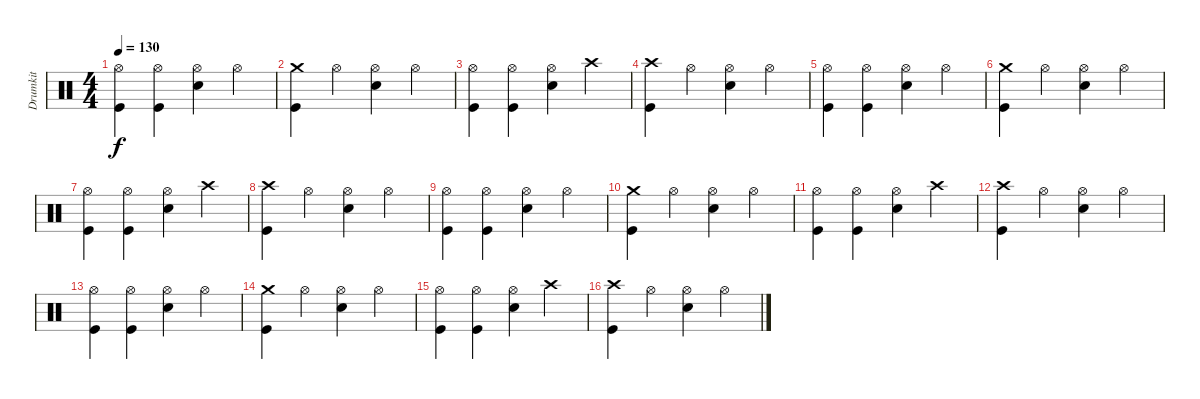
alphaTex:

\track ("Drumkit" "Drumkit") {instrument percussion}
\staff {score}
\articulation defaults
\ts (4 4)
\tempo 130
\clef neutral
\ks c
("Hi-Hat (open)" "Kick (hit)").4{dy f} ("Hi-Hat (open)" "Kick (hit)").4 ("Hi-Hat (open)" "Snare (hit) 2").4 "Hi-Hat (open)".4 |
("Crash medium (hit)" "Kick (hit)").4 "Hi-Hat (open)".4 ("Hi-Hat (open)" "Snare (hit) 2").4 "Hi-Hat (open)".4 |
("Hi-Hat (open)" "Kick (hit)").4 ("Hi-Hat (open)" "Kick (hit)").4 ("Hi-Hat (open)" "Snare (hit) 2").4 "Crash high (hit)".4 |
("Crash high (hit)" "Kick (hit)").4 "Hi-Hat (open)".4 ("Hi-Hat (open)" "Snare (hit) 2").4 "Hi-Hat (open)".4 |
("Hi-Hat (open)" "Kick (hit)").4 ("Hi-Hat (open)" "Kick (hit)").4 ("Hi-Hat (open)" "Snare (hit) 2").4 "Hi-Hat (open)".4 |
("Crash medium (hit)" "Kick (hit)").4 "Hi-Hat (open)".4 ("Hi-Hat (open)" "Snare (hit) 2").4 "Hi-Hat (open)".4 |
("Hi-Hat (open)" "Kick (hit)").4 ("Hi-Hat (open)" "Kick (hit)").4 ("Hi-Hat (open)" "Snare (hit) 2").4 "Crash high (hit)".4 |
("Crash high (hit)" "Kick (hit)").4 "Hi-Hat (open)".4 ("Hi-Hat (open)" "Snare (hit) 2").4 "Hi-Hat (open)".4 |
("Hi-Hat (open)" "Kick (hit)").4 ("Hi-Hat (open)" "Kick (hit)").4 ("Hi-Hat (open)" "Snare (hit) 2").4 "Hi-Hat (open)".4 |
("Crash medium (hit)" "Kick (hit)").4 "Hi-Hat (open)".4 ("Hi-Hat (open)" "Snare (hit) 2").4 "Hi-Hat (open)".4 |
("Hi-Hat (open)" "Kick (hit)").4 ("Hi-Hat (open)" "Kick (hit)").4 ("Hi-Hat (open)" "Snare (hit) 2").4 "Crash high (hit)".4 |
("Crash high (hit)" "Kick (hit)").4 "Hi-Hat (open)".4 ("Hi-Hat (open)" "Snare (hit) 2").4 "Hi-Hat (open)".4 |
("Hi-Hat (open)" "Kick (hit)").4 ("Hi-Hat (open)" "Kick (hit)").4 ("Hi-Hat (open)" "Snare (hit) 2").4 "Hi-Hat (open)".4 |
("Crash medium (hit)" "Kick (hit)").4 "Hi-Hat (open)".4 ("Hi-Hat (open)" "Snare (hit) 2").4 "Hi-Hat (open)".4 |
("Hi-Hat (open)" "Kick (hit)").4 ("Hi-Hat (open)" "Kick (hit)").4 ("Hi-Hat (open)" "Snare (hit) 2").4 "Crash high (hit)".4 |
("Crash high (hit)" "Kick (hit)").4 "Hi-Hat (open)".4 ("Hi-Hat (open)" "Snare (hit) 2").4 "Hi-Hat (open)".4
